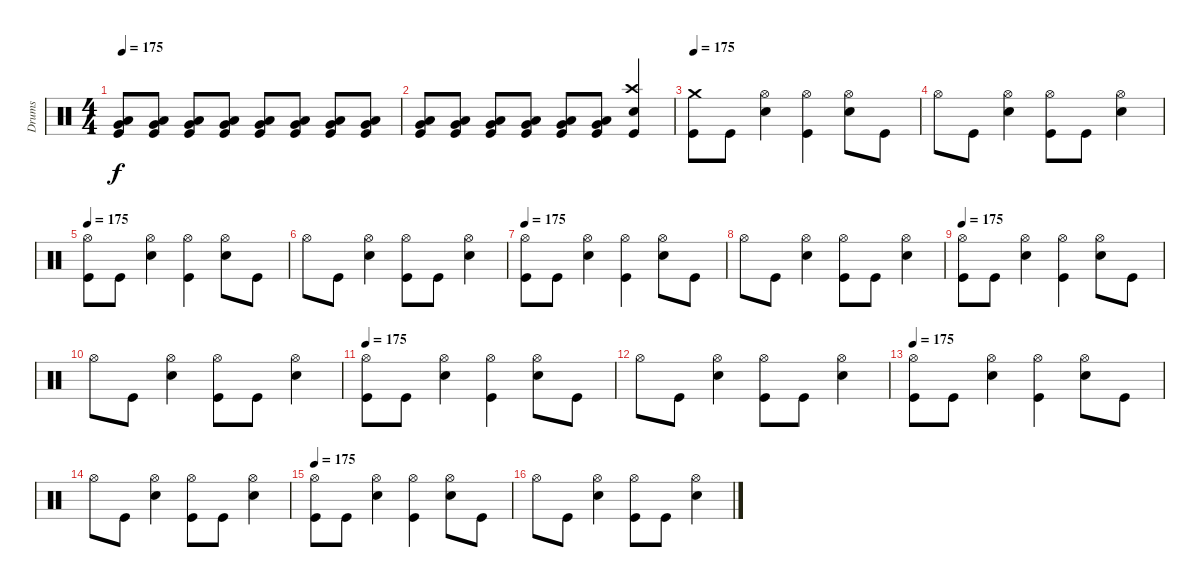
\track ("Drums" "Drums") {instrument percussion}
\staff {score}
\articulation defaults
\ts (4 4)
\tempo 175
\clef neutral
\ks c
("Very Low Tom (hit)" "Low Floor Tom (hit)" "Kick (hit)").8{dy f} ("Very Low Tom (hit)" "Low Floor Tom (hit)" "Kick (hit)").8 ("Very Low Tom (hit)" "Low Floor Tom (hit)" "Kick (hit)").8 ("Very Low Tom (hit)" "Low Floor Tom (hit)" "Kick (hit)").8 ("Very Low Tom (hit)" "Low Floor Tom (hit)" "Kick (hit)").8 ("Very Low Tom (hit)" "Low Floor Tom (hit)" "Kick (hit)").8 ("Very Low Tom (hit)" "Low Floor Tom (hit)" "Kick (hit)").8 ("Very Low Tom (hit)" "Low Floor Tom (hit)" "Kick (hit)").8 |
("Very Low Tom (hit)" "Low Floor Tom (hit)" "Kick (hit)").8 ("Very Low Tom (hit)" "Low Floor Tom (hit)" "Kick (hit)").8 ("Very Low Tom (hit)" "Low Floor Tom (hit)" "Kick (hit)").8 ("Very Low Tom (hit)" "Low Floor Tom (hit)" "Kick (hit)").8 ("Very Low Tom (hit)" "Low Floor Tom (hit)" "Kick (hit)").8 ("Very Low Tom (hit)" "Low Floor Tom (hit)" "Kick (hit)").8 ("Crash high (hit)" "Snare (hit) 2" "Kick (hit)").4 |
\tempo 175
("Crash medium (hit)" "Kick (hit)").8 "Kick (hit)".8 ("Hi-Hat (open)" "Snare (hit) 2").4 ("Hi-Hat (open)" "Kick (hit)").4 ("Hi-Hat (open)" "Snare (hit) 2").8 "Kick (hit)".8 |
"Hi-Hat (open)".8 "Kick (hit)".8 ("Hi-Hat (open)" "Snare (hit) 2").4 ("Hi-Hat (open)" "Kick (hit)").8 "Kick (hit)".8 ("Hi-Hat (open)" "Snare (hit) 2").4 |
\tempo 175
("Hi-Hat (open)" "Kick (hit)").8 "Kick (hit)".8 ("Hi-Hat (open)" "Snare (hit) 2").4 ("Hi-Hat (open)" "Kick (hit)").4 ("Hi-Hat (open)" "Snare (hit) 2").8 "Kick (hit)".8 |
"Hi-Hat (open)".8 "Kick (hit)".8 ("Hi-Hat (open)" "Snare (hit) 2").4 ("Hi-Hat (open)" "Kick (hit)").8 "Kick (hit)".8 ("Hi-Hat (open)" "Snare (hit) 2").4 |
\tempo 175
("Hi-Hat (open)" "Kick (hit)").8 "Kick (hit)".8 ("Hi-Hat (open)" "Snare (hit) 2").4 ("Hi-Hat (open)" "Kick (hit)").4 ("Hi-Hat (open)" "Snare (hit) 2").8 "Kick (hit)".8 |
"Hi-Hat (open)".8 "Kick (hit)".8 ("Hi-Hat (open)" "Snare (hit) 2").4 ("Hi-Hat (open)" "Kick (hit)").8 "Kick (hit)".8 ("Hi-Hat (open)" "Snare (hit) 2").4 |
\tempo 175
("Hi-Hat (open)" "Kick (hit)").8 "Kick (hit)".8 ("Hi-Hat (open)" "Snare (hit) 2").4 ("Hi-Hat (open)" "Kick (hit)").4 ("Hi-Hat (open)" "Snare (hit) 2").8 "Kick (hit)".8 |
"Hi-Hat (open)".8 "Kick (hit)".8 ("Hi-Hat (open)" "Snare (hit) 2").4 ("Hi-Hat (open)" "Kick (hit)").8 "Kick (hit)".8 ("Hi-Hat (open)" "Snare (hit) 2").4 |
\tempo 175
("Hi-Hat (open)" "Kick (hit)").8 "Kick (hit)".8 ("Hi-Hat (open)" "Snare (hit) 2").4 ("Hi-Hat (open)" "Kick (hit)").4 ("Hi-Hat (open)" "Snare (hit) 2").8 "Kick (hit)".8 |
"Hi-Hat (open)".8 "Kick (hit)".8 ("Hi-Hat (open)" "Snare (hit) 2").4 ("Hi-Hat (open)" "Kick (hit)").8 "Kick (hit)".8 ("Hi-Hat (open)" "Snare (hit) 2").4 |
\tempo 175
("Hi-Hat (open)" "Kick (hit)").8 "Kick (hit)".8 ("Hi-Hat (open)" "Snare (hit) 2").4 ("Hi-Hat (open)" "Kick (hit)").4 ("Hi-Hat (open)" "Snare (hit) 2").8 "Kick (hit)".8 |
"Hi-Hat (open)".8 "Kick (hit)".8 ("Hi-Hat (open)" "Snare (hit) 2").4 ("Hi-Hat (open)" "Kick (hit)").8 "Kick (hit)".8 ("Hi-Hat (open)" "Snare (hit) 2").4 |
\tempo 175
("Hi-Hat (open)" "Kick (hit)").8 "Kick (hit)".8 ("Hi-Hat (open)" "Snare (hit) 2").4 ("Hi-Hat (open)" "Kick (hit)").4 ("Hi-Hat (open)" "Snare (hit) 2").8 "Kick (hit)".8 |
"Hi-Hat (open)".8 "Kick (hit)".8 ("Hi-Hat (open)" "Snare (hit) 2").4 ("Hi-Hat (open)" "Kick (hit)").8 "Kick (hit)".8 ("Hi-Hat (open)" "Snare (hit) 2").4
